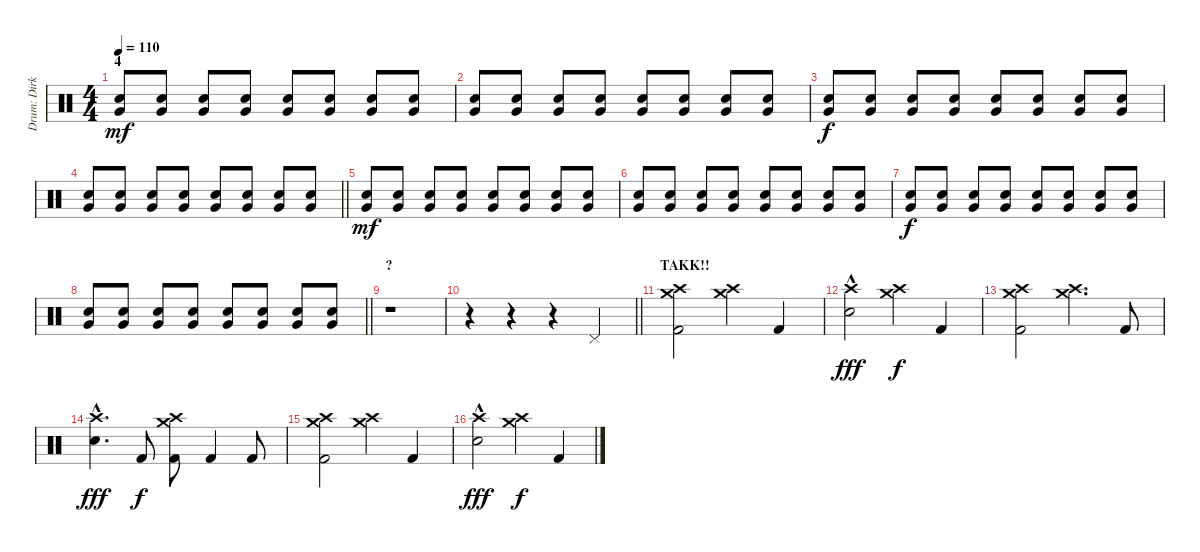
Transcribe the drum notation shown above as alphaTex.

\track ("Drum: Dirk" "Drum: Dirk") {instrument percussion}
\staff {score}
\articulation defaults
\ts (4 4)
\section ("" "4")
\tempo 110
\clef neutral
\ks c
("Very Low Tom (hit)" "Electric Snare (hit)").8{dy mf} ("Very Low Tom (hit)" "Electric Snare (hit)").8 ("Very Low Tom (hit)" "Electric Snare (hit)").8 ("Very Low Tom (hit)" "Electric Snare (hit)").8 ("Very Low Tom (hit)" "Electric Snare (hit)").8 ("Very Low Tom (hit)" "Electric Snare (hit)").8 ("Very Low Tom (hit)" "Electric Snare (hit)").8 ("Very Low Tom (hit)" "Electric Snare (hit)").8 |
("Very Low Tom (hit)" "Electric Snare (hit)").8 ("Very Low Tom (hit)" "Electric Snare (hit)").8 ("Very Low Tom (hit)" "Electric Snare (hit)").8 ("Very Low Tom (hit)" "Electric Snare (hit)").8 ("Very Low Tom (hit)" "Electric Snare (hit)").8 ("Very Low Tom (hit)" "Electric Snare (hit)").8 ("Very Low Tom (hit)" "Electric Snare (hit)").8 ("Very Low Tom (hit)" "Electric Snare (hit)").8 |
("Very Low Tom (hit)" "Electric Snare (hit)").8{dy f} ("Very Low Tom (hit)" "Electric Snare (hit)").8 ("Very Low Tom (hit)" "Electric Snare (hit)").8 ("Very Low Tom (hit)" "Electric Snare (hit)").8 ("Very Low Tom (hit)" "Electric Snare (hit)").8 ("Very Low Tom (hit)" "Electric Snare (hit)").8 ("Very Low Tom (hit)" "Electric Snare (hit)").8 ("Very Low Tom (hit)" "Electric Snare (hit)").8 |
\barLineRight lightlight
("Very Low Tom (hit)" "Electric Snare (hit)").8 ("Very Low Tom (hit)" "Electric Snare (hit)").8 ("Very Low Tom (hit)" "Electric Snare (hit)").8 ("Very Low Tom (hit)" "Electric Snare (hit)").8 ("Very Low Tom (hit)" "Electric Snare (hit)").8 ("Very Low Tom (hit)" "Electric Snare (hit)").8 ("Very Low Tom (hit)" "Electric Snare (hit)").8 ("Very Low Tom (hit)" "Electric Snare (hit)").8 |
("Very Low Tom (hit)" "Electric Snare (hit)").8{dy mf} ("Very Low Tom (hit)" "Electric Snare (hit)").8 ("Very Low Tom (hit)" "Electric Snare (hit)").8 ("Very Low Tom (hit)" "Electric Snare (hit)").8 ("Very Low Tom (hit)" "Electric Snare (hit)").8 ("Very Low Tom (hit)" "Electric Snare (hit)").8 ("Very Low Tom (hit)" "Electric Snare (hit)").8 ("Very Low Tom (hit)" "Electric Snare (hit)").8 |
("Very Low Tom (hit)" "Electric Snare (hit)").8 ("Very Low Tom (hit)" "Electric Snare (hit)").8 ("Very Low Tom (hit)" "Electric Snare (hit)").8 ("Very Low Tom (hit)" "Electric Snare (hit)").8 ("Very Low Tom (hit)" "Electric Snare (hit)").8 ("Very Low Tom (hit)" "Electric Snare (hit)").8 ("Very Low Tom (hit)" "Electric Snare (hit)").8 ("Very Low Tom (hit)" "Electric Snare (hit)").8 |
("Very Low Tom (hit)" "Electric Snare (hit)").8{dy f} ("Very Low Tom (hit)" "Electric Snare (hit)").8 ("Very Low Tom (hit)" "Electric Snare (hit)").8 ("Very Low Tom (hit)" "Electric Snare (hit)").8 ("Very Low Tom (hit)" "Electric Snare (hit)").8 ("Very Low Tom (hit)" "Electric Snare (hit)").8 ("Very Low Tom (hit)" "Electric Snare (hit)").8 ("Very Low Tom (hit)" "Electric Snare (hit)").8 |
\barLineRight lightlight
("Very Low Tom (hit)" "Electric Snare (hit)").8 ("Very Low Tom (hit)" "Electric Snare (hit)").8 ("Very Low Tom (hit)" "Electric Snare (hit)").8 ("Very Low Tom (hit)" "Electric Snare (hit)").8 ("Very Low Tom (hit)" "Electric Snare (hit)").8 ("Very Low Tom (hit)" "Electric Snare (hit)").8 ("Very Low Tom (hit)" "Electric Snare (hit)").8 ("Very Low Tom (hit)" "Electric Snare (hit)").8 |
\section ("" "?")
r.1 |
\barLineRight lightlight
r.4 r.4 r.4 "Pedal Hi-Hat (hit)".4 |
\section ("" "TAKK!!")
("Crash high (hit)" "Crash medium (hit)" "Kick (hit) 2").2 ("Crash high (hit)" "Crash medium (hit)").4 "Kick (hit) 2".4 |
("Crash high (hit)" "Electric Snare (hit)"{hac}).2{dy fff} ("Crash high (hit)" "Crash medium (hit)").4{dy f} "Kick (hit) 2".4 |
("Crash high (hit)" "Crash medium (hit)" "Kick (hit) 2").2 ("Crash high (hit)" "Crash medium (hit)").4{d} "Kick (hit) 2".8 |
("Crash high (hit)" "Electric Snare (hit)"{hac}).4{d dy fff} "Kick (hit) 2".8{dy f} ("Crash high (hit)" "Crash medium (hit)" "Kick (hit) 2").8 "Kick (hit) 2".4 "Kick (hit) 2".8 |
("Crash high (hit)" "Crash medium (hit)" "Kick (hit) 2").2 ("Crash high (hit)" "Crash medium (hit)").4 "Kick (hit) 2".4 |
("Crash high (hit)" "Electric Snare (hit)"{hac}).2{dy fff} ("Crash high (hit)" "Crash medium (hit)").4{dy f} "Kick (hit) 2".4
